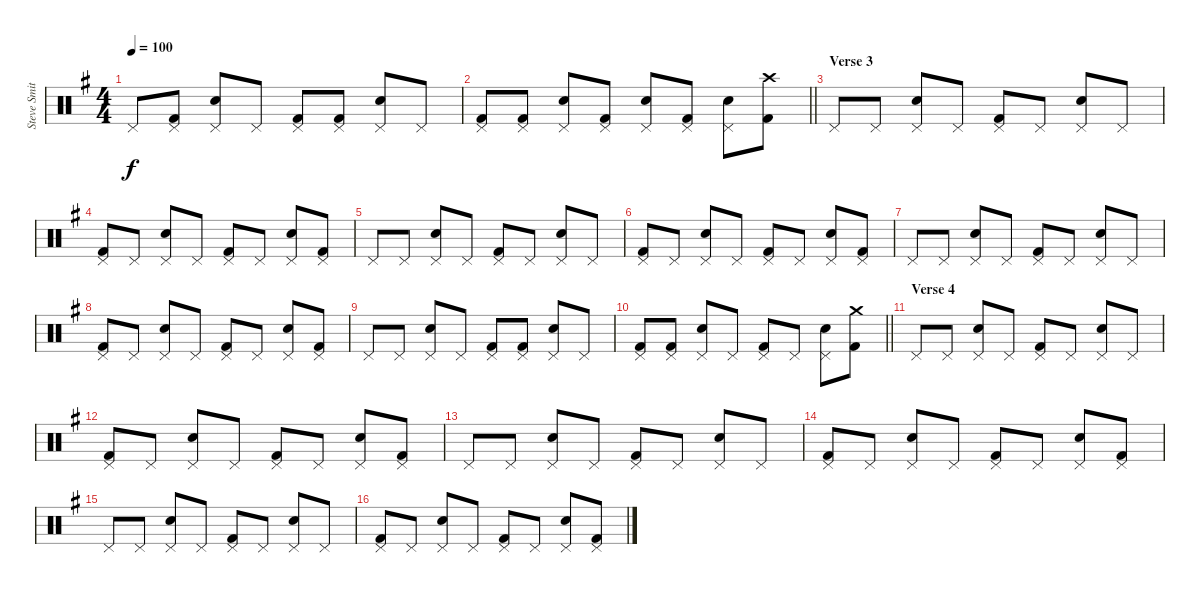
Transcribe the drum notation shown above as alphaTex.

\track ("Steve Smith" "Steve Smit") {instrument percussion}
\staff {score}
\articulation defaults
\ts (4 4)
\tempo 100
\clef neutral
\ks g "Pedal Hi-Hat (hit)".8{dy f}
("Pedal Hi-Hat (hit)" "Kick (hit) 2").8 ("Pedal Hi-Hat (hit)" "Snare (hit) 2").8 "Pedal Hi-Hat (hit)".8 ("Pedal Hi-Hat (hit)" "Kick (hit) 2").8 ("Pedal Hi-Hat (hit)" "Kick (hit) 2").8 ("Pedal Hi-Hat (hit)" "Snare (hit) 2").8 "Pedal Hi-Hat (hit)".8 |
\barLineRight lightlight
("Pedal Hi-Hat (hit)" "Kick (hit) 2").8 ("Pedal Hi-Hat (hit)" "Kick (hit) 2").8 ("Pedal Hi-Hat (hit)" "Snare (hit) 2").8 ("Pedal Hi-Hat (hit)" "Kick (hit) 2").8 ("Pedal Hi-Hat (hit)" "Snare (hit) 2").8 ("Pedal Hi-Hat (hit)" "Kick (hit) 2").8 ("Pedal Hi-Hat (hit)" "Snare (hit) 2").8 ("Crash high (hit)" "Kick (hit) 2").8 |
\section ("" "Verse 3")
"Pedal Hi-Hat (hit)".8 "Pedal Hi-Hat (hit)".8 ("Pedal Hi-Hat (hit)" "Snare (hit) 2").8 "Pedal Hi-Hat (hit)".8 ("Pedal Hi-Hat (hit)" "Kick (hit) 2").8 "Pedal Hi-Hat (hit)".8 ("Pedal Hi-Hat (hit)" "Snare (hit) 2").8 "Pedal Hi-Hat (hit)".8 |
("Pedal Hi-Hat (hit)" "Kick (hit) 2").8 "Pedal Hi-Hat (hit)".8 ("Pedal Hi-Hat (hit)" "Snare (hit) 2").8 "Pedal Hi-Hat (hit)".8 ("Pedal Hi-Hat (hit)" "Kick (hit) 2").8 "Pedal Hi-Hat (hit)".8 ("Pedal Hi-Hat (hit)" "Snare (hit) 2").8 ("Pedal Hi-Hat (hit)" "Kick (hit) 2").8 |
"Pedal Hi-Hat (hit)".8 "Pedal Hi-Hat (hit)".8 ("Pedal Hi-Hat (hit)" "Snare (hit) 2").8 "Pedal Hi-Hat (hit)".8 ("Pedal Hi-Hat (hit)" "Kick (hit) 2").8 "Pedal Hi-Hat (hit)".8 ("Pedal Hi-Hat (hit)" "Snare (hit) 2").8 "Pedal Hi-Hat (hit)".8 |
("Pedal Hi-Hat (hit)" "Kick (hit) 2").8 "Pedal Hi-Hat (hit)".8 ("Pedal Hi-Hat (hit)" "Snare (hit) 2").8 "Pedal Hi-Hat (hit)".8 ("Pedal Hi-Hat (hit)" "Kick (hit) 2").8 "Pedal Hi-Hat (hit)".8 ("Pedal Hi-Hat (hit)" "Snare (hit) 2").8 ("Pedal Hi-Hat (hit)" "Kick (hit) 2").8 |
"Pedal Hi-Hat (hit)".8 "Pedal Hi-Hat (hit)".8 ("Pedal Hi-Hat (hit)" "Snare (hit) 2").8 "Pedal Hi-Hat (hit)".8 ("Pedal Hi-Hat (hit)" "Kick (hit) 2").8 "Pedal Hi-Hat (hit)".8 ("Pedal Hi-Hat (hit)" "Snare (hit) 2").8 "Pedal Hi-Hat (hit)".8 |
("Pedal Hi-Hat (hit)" "Kick (hit) 2").8 "Pedal Hi-Hat (hit)".8 ("Pedal Hi-Hat (hit)" "Snare (hit) 2").8 "Pedal Hi-Hat (hit)".8 ("Pedal Hi-Hat (hit)" "Kick (hit) 2").8 "Pedal Hi-Hat (hit)".8 ("Pedal Hi-Hat (hit)" "Snare (hit) 2").8 ("Pedal Hi-Hat (hit)" "Kick (hit) 2").8 |
"Pedal Hi-Hat (hit)".8 "Pedal Hi-Hat (hit)".8 ("Pedal Hi-Hat (hit)" "Snare (hit) 2").8 "Pedal Hi-Hat (hit)".8 ("Pedal Hi-Hat (hit)" "Kick (hit) 2").8 ("Pedal Hi-Hat (hit)" "Kick (hit) 2").8 ("Pedal Hi-Hat (hit)" "Snare (hit) 2").8 "Pedal Hi-Hat (hit)".8 |
\barLineRight lightlight
("Pedal Hi-Hat (hit)" "Kick (hit) 2").8 ("Pedal Hi-Hat (hit)" "Kick (hit) 2").8 ("Pedal Hi-Hat (hit)" "Snare (hit) 2").8 "Pedal Hi-Hat (hit)".8 ("Pedal Hi-Hat (hit)" "Kick (hit) 2").8 "Pedal Hi-Hat (hit)".8 ("Pedal Hi-Hat (hit)" "Snare (hit) 2").8 ("Crash medium (hit)" "Kick (hit) 2").8 |
\section ("" "Verse 4")
"Pedal Hi-Hat (hit)".8 "Pedal Hi-Hat (hit)".8 ("Pedal Hi-Hat (hit)" "Snare (hit) 2").8 "Pedal Hi-Hat (hit)".8 ("Pedal Hi-Hat (hit)" "Kick (hit) 2").8 "Pedal Hi-Hat (hit)".8 ("Pedal Hi-Hat (hit)" "Snare (hit) 2").8 "Pedal Hi-Hat (hit)".8 |
("Pedal Hi-Hat (hit)" "Kick (hit) 2").8 "Pedal Hi-Hat (hit)".8 ("Pedal Hi-Hat (hit)" "Snare (hit) 2").8 "Pedal Hi-Hat (hit)".8 ("Pedal Hi-Hat (hit)" "Kick (hit) 2").8 "Pedal Hi-Hat (hit)".8 ("Pedal Hi-Hat (hit)" "Snare (hit) 2").8 ("Pedal Hi-Hat (hit)" "Kick (hit) 2").8 |
"Pedal Hi-Hat (hit)".8 "Pedal Hi-Hat (hit)".8 ("Pedal Hi-Hat (hit)" "Snare (hit) 2").8 "Pedal Hi-Hat (hit)".8 ("Pedal Hi-Hat (hit)" "Kick (hit) 2").8 "Pedal Hi-Hat (hit)".8 ("Pedal Hi-Hat (hit)" "Snare (hit) 2").8 "Pedal Hi-Hat (hit)".8 |
("Pedal Hi-Hat (hit)" "Kick (hit) 2").8 "Pedal Hi-Hat (hit)".8 ("Pedal Hi-Hat (hit)" "Snare (hit) 2").8 "Pedal Hi-Hat (hit)".8 ("Pedal Hi-Hat (hit)" "Kick (hit) 2").8 "Pedal Hi-Hat (hit)".8 ("Pedal Hi-Hat (hit)" "Snare (hit) 2").8 ("Pedal Hi-Hat (hit)" "Kick (hit) 2").8 |
"Pedal Hi-Hat (hit)".8 "Pedal Hi-Hat (hit)".8 ("Pedal Hi-Hat (hit)" "Snare (hit) 2").8 "Pedal Hi-Hat (hit)".8 ("Pedal Hi-Hat (hit)" "Kick (hit) 2").8 "Pedal Hi-Hat (hit)".8 ("Pedal Hi-Hat (hit)" "Snare (hit) 2").8 "Pedal Hi-Hat (hit)".8 |
("Pedal Hi-Hat (hit)" "Kick (hit) 2").8 "Pedal Hi-Hat (hit)".8 ("Pedal Hi-Hat (hit)" "Snare (hit) 2").8 "Pedal Hi-Hat (hit)".8 ("Pedal Hi-Hat (hit)" "Kick (hit) 2").8 "Pedal Hi-Hat (hit)".8 ("Pedal Hi-Hat (hit)" "Snare (hit) 2").8 ("Pedal Hi-Hat (hit)" "Kick (hit) 2").8
